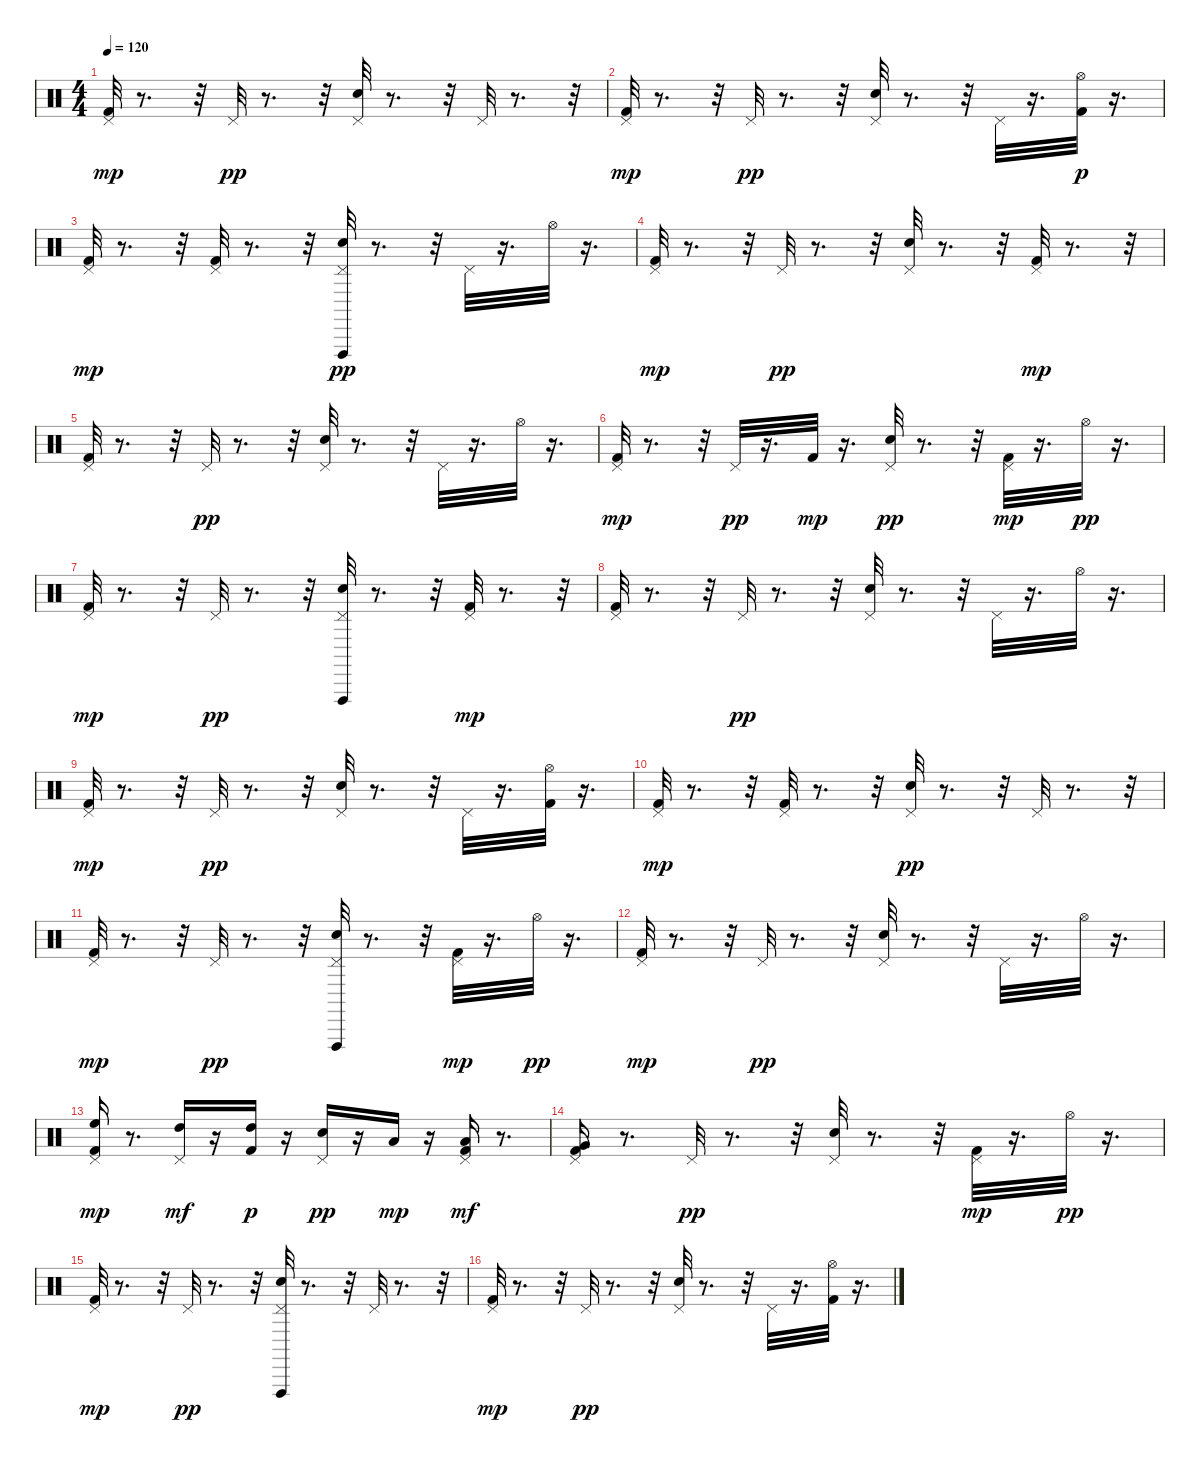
\track "" {instrument percussion}
\staff {score}
\articulation defaults
\ts (4 4)
\tempo 120
\clef neutral
\ks c
("Pedal Hi-Hat (hit)" "Kick (hit) 2").32{dy mp} r.8{d} r.32 "Pedal Hi-Hat (hit)".32{dy pp} r.8{d} r.32 ("Pedal Hi-Hat (hit)" "Snare (hit) 2").32 r.8{d} r.32 "Pedal Hi-Hat (hit)".32 r.8{d} r.32 |
("Pedal Hi-Hat (hit)" "Kick (hit) 2").32{dy mp} r.8{d} r.32 "Pedal Hi-Hat (hit)".32{dy pp} r.8{d} r.32 ("Pedal Hi-Hat (hit)" "Snare (hit) 2").32 r.8{d} r.32 "Pedal Hi-Hat (hit)".32 r.16{d} ("Hi-Hat (open)" "Kick (hit) 2").32{dy p} r.16{d} |
("Pedal Hi-Hat (hit)" "Kick (hit) 2").32{dy mp} r.8{d} r.32 ("Pedal Hi-Hat (hit)" "Kick (hit) 2").32 r.8{d} r.32 ("Vibraslap (hit)" "Pedal Hi-Hat (hit)" "Snare (hit) 2").32{dy pp} r.8{d} r.32 "Pedal Hi-Hat (hit)".32 r.16{d} "Hi-Hat (open)".32 r.16{d} |
("Pedal Hi-Hat (hit)" "Kick (hit) 2").32{dy mp} r.8{d} r.32 "Pedal Hi-Hat (hit)".32{dy pp} r.8{d} r.32 ("Pedal Hi-Hat (hit)" "Snare (hit) 2").32 r.8{d} r.32 ("Pedal Hi-Hat (hit)" "Kick (hit) 2").32{dy mp} r.8{d} r.32 |
("Pedal Hi-Hat (hit)" "Kick (hit) 2").32 r.8{d} r.32 "Pedal Hi-Hat (hit)".32{dy pp} r.8{d} r.32 ("Pedal Hi-Hat (hit)" "Snare (hit) 2").32 r.8{d} r.32 "Pedal Hi-Hat (hit)".32 r.16{d} "Hi-Hat (open)".32 r.16{d} |
("Pedal Hi-Hat (hit)" "Kick (hit) 2").32{dy mp} r.8{d} r.32 "Pedal Hi-Hat (hit)".32{dy pp} r.16{d} "Kick (hit) 2".32{dy mp} r.16{d} ("Pedal Hi-Hat (hit)" "Snare (hit) 2").32{dy pp} r.8{d} r.32 ("Pedal Hi-Hat (hit)" "Kick (hit) 2").32{dy mp} r.16{d} "Hi-Hat (open)".32{dy pp} r.16{d} |
("Pedal Hi-Hat (hit)" "Kick (hit) 2").32{dy mp} r.8{d} r.32 "Pedal Hi-Hat (hit)".32{dy pp} r.8{d} r.32 ("Vibraslap (hit)" "Pedal Hi-Hat (hit)" "Snare (hit) 2").32 r.8{d} r.32 ("Pedal Hi-Hat (hit)" "Kick (hit) 2").32{dy mp} r.8{d} r.32 |
("Pedal Hi-Hat (hit)" "Kick (hit) 2").32 r.8{d} r.32 "Pedal Hi-Hat (hit)".32{dy pp} r.8{d} r.32 ("Pedal Hi-Hat (hit)" "Snare (hit) 2").32 r.8{d} r.32 "Pedal Hi-Hat (hit)".32 r.16{d} "Hi-Hat (open)".32 r.16{d} |
("Pedal Hi-Hat (hit)" "Kick (hit) 2").32{dy mp} r.8{d} r.32 "Pedal Hi-Hat (hit)".32{dy pp} r.8{d} r.32 ("Pedal Hi-Hat (hit)" "Snare (hit) 2").32 r.8{d} r.32 "Pedal Hi-Hat (hit)".32 r.16{d} ("Kick (hit) 2" "Hi-Hat (open)").32 r.16{d} |
("Pedal Hi-Hat (hit)" "Kick (hit) 2").32{dy mp} r.8{d} r.32 ("Pedal Hi-Hat (hit)" "Kick (hit) 2").32 r.8{d} r.32 ("Pedal Hi-Hat (hit)" "Snare (hit) 2").32{dy pp} r.8{d} r.32 "Pedal Hi-Hat (hit)".32 r.8{d} r.32 |
("Pedal Hi-Hat (hit)" "Kick (hit) 2").32{dy mp} r.8{d} r.32 "Pedal Hi-Hat (hit)".32{dy pp} r.8{d} r.32 ("Vibraslap (hit)" "Pedal Hi-Hat (hit)" "Snare (hit) 2").32 r.8{d} r.32 ("Pedal Hi-Hat (hit)" "Kick (hit) 2").32{dy mp} r.16{d} "Hi-Hat (open)".32{dy pp} r.16{d} |
("Pedal Hi-Hat (hit)" "Kick (hit) 2").32{dy mp} r.8{d} r.32 "Pedal Hi-Hat (hit)".32{dy pp} r.8{d} r.32 ("Pedal Hi-Hat (hit)" "Snare (hit) 2").32 r.8{d} r.32 "Pedal Hi-Hat (hit)".32 r.16{d} "Hi-Hat (open)".32 r.16{d} |
("Pedal Hi-Hat (hit)" "Kick (hit) 2" "High Floor Tom (hit)").16{dy mp} r.8{d} ("Pedal Hi-Hat (hit)" "High Tom (hit)").16{dy mf} r.16 ("Kick (hit) 2" "High Tom (hit)").16{dy p} r.16 ("Pedal Hi-Hat (hit)" "Snare (hit) 2").16{dy pp} r.16 "Low Tom (hit)".16{dy mp} r.16 ("Pedal Hi-Hat (hit)" "Kick (hit) 2" "Low Tom (hit)").16{dy mf} r.8{d} |
("Pedal Hi-Hat (hit)" "Kick (hit) 2" "Very Low Tom (hit)").16 r.8{d} "Pedal Hi-Hat (hit)".32{dy pp} r.8{d} r.32 ("Pedal Hi-Hat (hit)" "Snare (hit) 2").32 r.8{d} r.32 ("Pedal Hi-Hat (hit)" "Kick (hit) 2").32{dy mp} r.16{d} "Hi-Hat (open)".32{dy pp} r.16{d} |
("Pedal Hi-Hat (hit)" "Kick (hit) 2").32{dy mp} r.8{d} r.32 "Pedal Hi-Hat (hit)".32{dy pp} r.8{d} r.32 ("Vibraslap (hit)" "Pedal Hi-Hat (hit)" "Snare (hit) 2").32 r.8{d} r.32 "Pedal Hi-Hat (hit)".32 r.8{d} r.32 |
("Pedal Hi-Hat (hit)" "Kick (hit) 2").32{dy mp} r.8{d} r.32 "Pedal Hi-Hat (hit)".32{dy pp} r.8{d} r.32 ("Pedal Hi-Hat (hit)" "Snare (hit) 2").32 r.8{d} r.32 "Pedal Hi-Hat (hit)".32 r.16{d} ("Kick (hit) 2" "Hi-Hat (open)").32 r.16{d}
